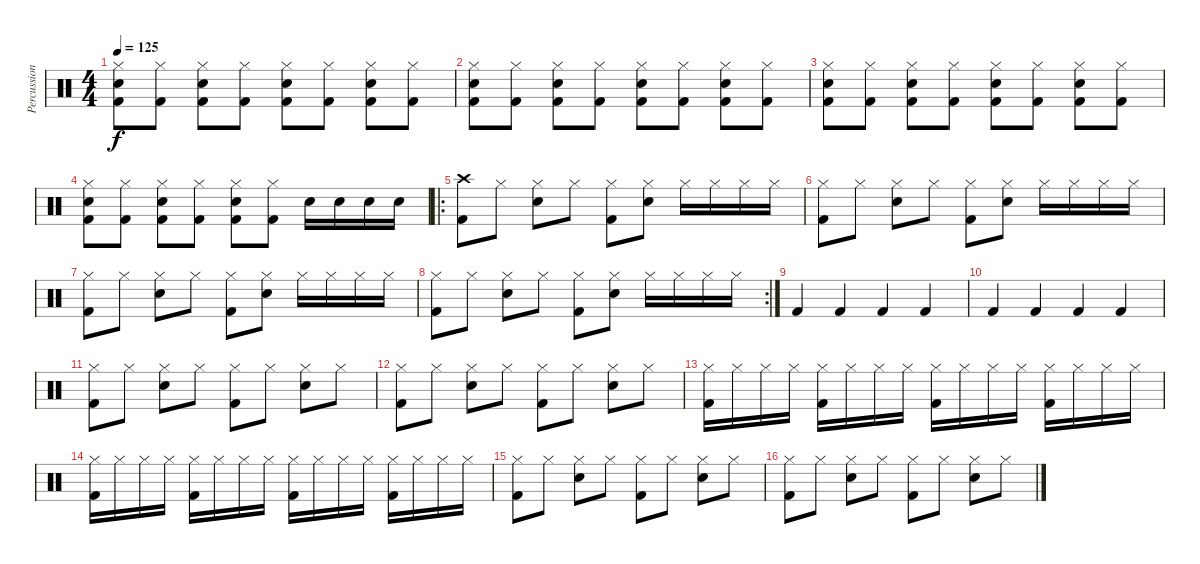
\track ("Percussion" "Percussion") {instrument percussion}
\staff {score}
\articulation defaults
\ts (4 4)
\tempo 125
\clef neutral
\ks c
("Kick (hit) 2" "Snare (hit) 2" "Hi-Hat (closed)").8{dy f} ("Kick (hit) 2" "Hi-Hat (closed)").8 ("Kick (hit) 2" "Snare (hit) 2" "Hi-Hat (closed)").8 ("Kick (hit) 2" "Hi-Hat (closed)").8 ("Kick (hit) 2" "Snare (hit) 2" "Hi-Hat (closed)").8 ("Kick (hit) 2" "Hi-Hat (closed)").8 ("Kick (hit) 2" "Snare (hit) 2" "Hi-Hat (closed)").8 ("Kick (hit) 2" "Hi-Hat (closed)").8 |
("Kick (hit) 2" "Snare (hit) 2" "Hi-Hat (closed)").8 ("Kick (hit) 2" "Hi-Hat (closed)").8 ("Kick (hit) 2" "Snare (hit) 2" "Hi-Hat (closed)").8 ("Kick (hit) 2" "Hi-Hat (closed)").8 ("Kick (hit) 2" "Snare (hit) 2" "Hi-Hat (closed)").8 ("Kick (hit) 2" "Hi-Hat (closed)").8 ("Kick (hit) 2" "Snare (hit) 2" "Hi-Hat (closed)").8 ("Kick (hit) 2" "Hi-Hat (closed)").8 |
("Kick (hit) 2" "Snare (hit) 2" "Hi-Hat (closed)").8 ("Kick (hit) 2" "Hi-Hat (closed)").8 ("Kick (hit) 2" "Snare (hit) 2" "Hi-Hat (closed)").8 ("Kick (hit) 2" "Hi-Hat (closed)").8 ("Kick (hit) 2" "Snare (hit) 2" "Hi-Hat (closed)").8 ("Kick (hit) 2" "Hi-Hat (closed)").8 ("Kick (hit) 2" "Snare (hit) 2" "Hi-Hat (closed)").8 ("Kick (hit) 2" "Hi-Hat (closed)").8 |
("Kick (hit) 2" "Snare (hit) 2" "Hi-Hat (closed)").8 ("Kick (hit) 2" "Hi-Hat (closed)").8 ("Kick (hit) 2" "Snare (hit) 2" "Hi-Hat (closed)").8 ("Kick (hit) 2" "Hi-Hat (closed)").8 ("Kick (hit) 2" "Snare (hit) 2" "Hi-Hat (closed)").8 ("Kick (hit) 2" "Hi-Hat (closed)").8 "Snare (hit) 2".16 "Snare (hit) 2".16 "Snare (hit) 2".16 "Snare (hit) 2".16 |
\ro
("Kick (hit) 2" "Crash high (hit)").8 "Hi-Hat (closed)".8 ("Snare (hit) 2" "Hi-Hat (closed)").8 "Hi-Hat (closed)".8 ("Kick (hit) 2" "Hi-Hat (closed)").8 ("Snare (hit) 2" "Hi-Hat (closed)").8 "Hi-Hat (closed)".16 "Hi-Hat (closed)".16 "Hi-Hat (closed)".16 "Hi-Hat (closed)".16 |
("Kick (hit) 2" "Hi-Hat (closed)").8 "Hi-Hat (closed)".8 ("Snare (hit) 2" "Hi-Hat (closed)").8 "Hi-Hat (closed)".8 ("Kick (hit) 2" "Hi-Hat (closed)").8 ("Snare (hit) 2" "Hi-Hat (closed)").8 "Hi-Hat (closed)".16 "Hi-Hat (closed)".16 "Hi-Hat (closed)".16 "Hi-Hat (closed)".16 |
("Kick (hit) 2" "Hi-Hat (closed)").8 "Hi-Hat (closed)".8 ("Snare (hit) 2" "Hi-Hat (closed)").8 "Hi-Hat (closed)".8 ("Kick (hit) 2" "Hi-Hat (closed)").8 ("Snare (hit) 2" "Hi-Hat (closed)").8 "Hi-Hat (closed)".16 "Hi-Hat (closed)".16 "Hi-Hat (closed)".16 "Hi-Hat (closed)".16 |
\rc 2
("Kick (hit) 2" "Hi-Hat (closed)").8 "Hi-Hat (closed)".8 ("Snare (hit) 2" "Hi-Hat (closed)").8 "Hi-Hat (closed)".8 ("Kick (hit) 2" "Hi-Hat (closed)").8 ("Snare (hit) 2" "Hi-Hat (closed)").8 "Hi-Hat (closed)".16 "Hi-Hat (closed)".16 "Hi-Hat (closed)".16 "Hi-Hat (closed)".16 |
"Kick (hit) 2".4 "Kick (hit) 2".4 "Kick (hit) 2".4 "Kick (hit) 2".4 |
"Kick (hit) 2".4 "Kick (hit) 2".4 "Kick (hit) 2".4 "Kick (hit) 2".4 |
("Kick (hit) 2" "Hi-Hat (closed)").8 "Hi-Hat (closed)".8 ("Snare (hit) 2" "Hi-Hat (closed)").8 "Hi-Hat (closed)".8 ("Kick (hit) 2" "Hi-Hat (closed)").8 "Hi-Hat (closed)".8 ("Snare (hit) 2" "Hi-Hat (closed)").8 "Hi-Hat (closed)".8 |
("Kick (hit) 2" "Hi-Hat (closed)").8 "Hi-Hat (closed)".8 ("Snare (hit) 2" "Hi-Hat (closed)").8 "Hi-Hat (closed)".8 ("Kick (hit) 2" "Hi-Hat (closed)").8 "Hi-Hat (closed)".8 ("Snare (hit) 2" "Hi-Hat (closed)").8 "Hi-Hat (closed)".8 |
("Kick (hit) 2" "Hi-Hat (closed)").16 "Hi-Hat (closed)".16 "Hi-Hat (closed)".16 "Hi-Hat (closed)".16 ("Kick (hit) 2" "Hi-Hat (closed)").16 "Hi-Hat (closed)".16 "Hi-Hat (closed)".16 "Hi-Hat (closed)".16 ("Kick (hit) 2" "Hi-Hat (closed)").16 "Hi-Hat (closed)".16 "Hi-Hat (closed)".16 "Hi-Hat (closed)".16 ("Kick (hit) 2" "Hi-Hat (closed)").16 "Hi-Hat (closed)".16 "Hi-Hat (closed)".16 "Hi-Hat (closed)".16 |
("Kick (hit) 2" "Hi-Hat (closed)").16 "Hi-Hat (closed)".16 "Hi-Hat (closed)".16 "Hi-Hat (closed)".16 ("Kick (hit) 2" "Hi-Hat (closed)").16 "Hi-Hat (closed)".16 "Hi-Hat (closed)".16 "Hi-Hat (closed)".16 ("Kick (hit) 2" "Hi-Hat (closed)").16 "Hi-Hat (closed)".16 "Hi-Hat (closed)".16 "Hi-Hat (closed)".16 ("Kick (hit) 2" "Hi-Hat (closed)").16 "Hi-Hat (closed)".16 "Hi-Hat (closed)".16 "Hi-Hat (closed)".16 |
("Kick (hit) 2" "Hi-Hat (closed)").8 "Hi-Hat (closed)".8 ("Snare (hit) 2" "Hi-Hat (closed)").8 "Hi-Hat (closed)".8 ("Kick (hit) 2" "Hi-Hat (closed)").8 "Hi-Hat (closed)".8 ("Snare (hit) 2" "Hi-Hat (closed)").8 "Hi-Hat (closed)".8 |
("Kick (hit) 2" "Hi-Hat (closed)").8 "Hi-Hat (closed)".8 ("Snare (hit) 2" "Hi-Hat (closed)").8 "Hi-Hat (closed)".8 ("Kick (hit) 2" "Hi-Hat (closed)").8 "Hi-Hat (closed)".8 ("Snare (hit) 2" "Hi-Hat (closed)").8 "Hi-Hat (closed)".8
